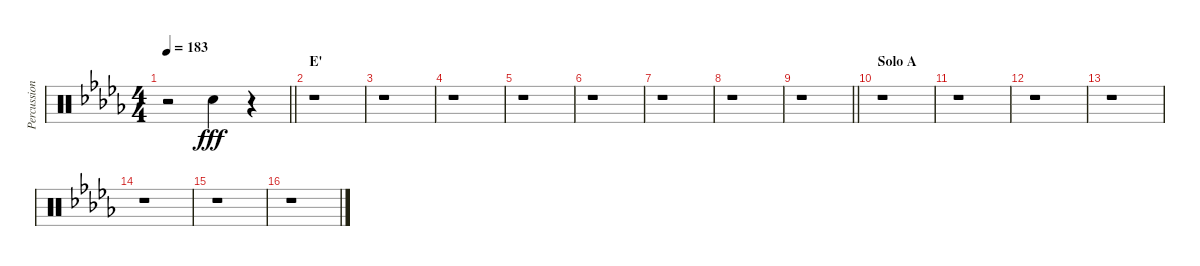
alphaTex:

\track ("Percussion" "Percussion") {instrument percussion}
\staff {score}
\articulation defaults
\ts (4 4)
\tempo 183
\clef neutral
\barLineRight lightlight
\ks db
r.2{dy fff} "Hand Clap (hit)".4 r.4 |
\section ("" "E'")
r.1 |
r.1 |
r.1 |
r.1 |
r.1 |
r.1 |
r.1 |
\barLineRight lightlight
r.1 |
\section ("" "Solo A")
r.1 |
r.1 |
r.1 |
r.1 |
r.1 |
r.1 |
r.1
